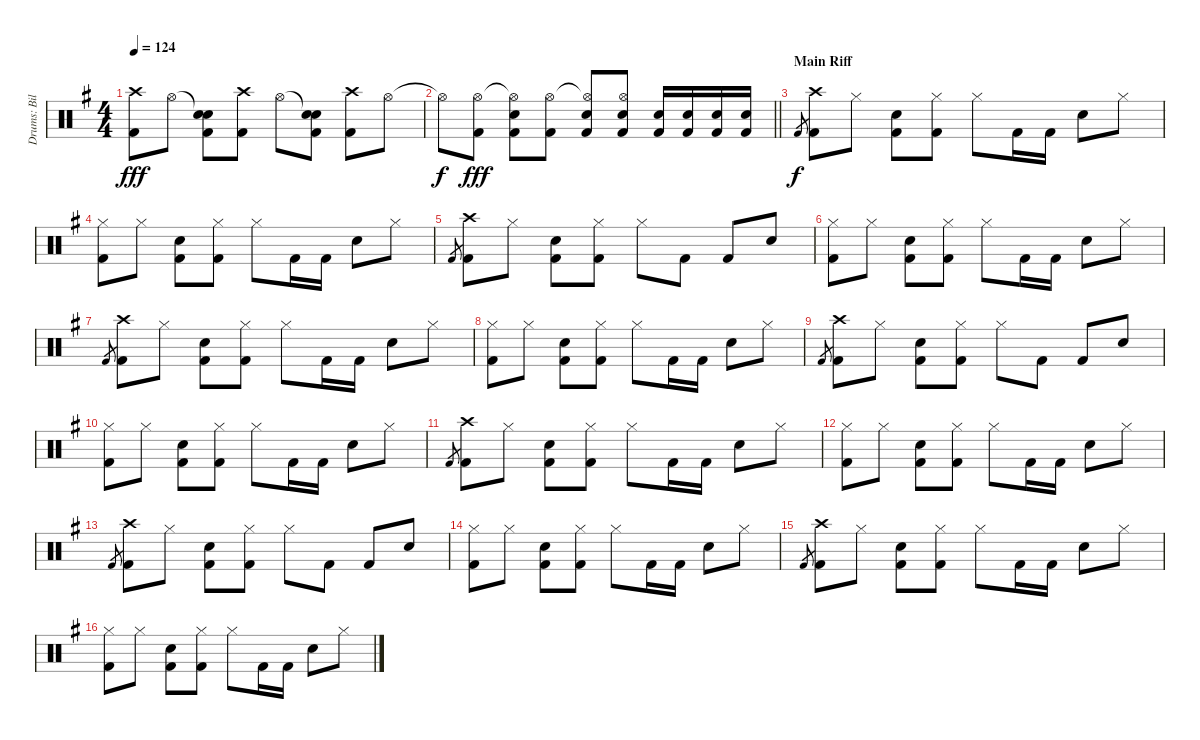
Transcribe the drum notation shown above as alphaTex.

\track ("Drums: Bill" "Drums: Bil") {instrument percussion}
\staff {score}
\articulation defaults
\ts (4 4)
\tempo 124
\clef neutral
\ks g
("Crash high (hit)" "Kick (hit) 2").8{dy fff} "Hi-Hat (open)".8 ("Snare (hit)"{t} "Electric Snare (hit)" "Kick (hit) 2").8 ("Crash high (hit)" "Kick (hit) 2").8 "Hi-Hat (open)".8 ("Snare (hit)"{t} "Electric Snare (hit)" "Kick (hit) 2").8 ("Crash high (hit)" "Kick (hit) 2").8 "Hi-Hat (open)".8 |
\barLineRight lightlight "Hi-Hat (open)"{t}.8{dy f}
("Hi-Hat (open)" "Kick (hit) 2").8{dy fff} ("Hi-Hat (open)"{t} "Electric Snare (hit)" "Kick (hit) 2").8 ("Hi-Hat (open)" "Kick (hit) 2").8 ("Hi-Hat (open)"{t} "Electric Snare (hit)" "Kick (hit) 2").8 ("Hi-Hat (open)" "Electric Snare (hit)" "Kick (hit) 2").8 ("Electric Snare (hit)" "Kick (hit) 2").16 ("Electric Snare (hit)" "Kick (hit) 2").16 ("Electric Snare (hit)" "Kick (hit) 2").16 ("Electric Snare (hit)" "Kick (hit) 2").16 |
\section ("" "Main Riff")
"Kick (hit) 2".8{gr dy f} ("Crash high (hit)" "Kick (hit) 2").8 "Hi-Hat (closed)".8 ("Electric Snare (hit)" "Kick (hit) 2").8 ("Hi-Hat (closed)" "Kick (hit) 2").8 "Hi-Hat (closed)".8 "Kick (hit) 2".16 "Kick (hit) 2".16 "Electric Snare (hit)".8 "Hi-Hat (closed)".8 |
("Hi-Hat (closed)" "Kick (hit) 2").8 "Hi-Hat (closed)".8 ("Electric Snare (hit)" "Kick (hit) 2").8 ("Hi-Hat (closed)" "Kick (hit) 2").8 "Hi-Hat (closed)".8 "Kick (hit) 2".16 "Kick (hit) 2".16 "Electric Snare (hit)".8 "Hi-Hat (closed)".8 |
"Kick (hit) 2".8{gr} ("Crash high (hit)" "Kick (hit) 2").8 "Hi-Hat (closed)".8 ("Electric Snare (hit)" "Kick (hit) 2").8 ("Hi-Hat (closed)" "Kick (hit) 2").8 "Hi-Hat (closed)".8 "Kick (hit) 2".8 "Kick (hit) 2".8 "Electric Snare (hit)".8 |
("Hi-Hat (closed)" "Kick (hit) 2").8 "Hi-Hat (closed)".8 ("Electric Snare (hit)" "Kick (hit) 2").8 ("Hi-Hat (closed)" "Kick (hit) 2").8 "Hi-Hat (closed)".8 "Kick (hit) 2".16 "Kick (hit) 2".16 "Electric Snare (hit)".8 "Hi-Hat (closed)".8 |
"Kick (hit) 2".8{gr} ("Crash high (hit)" "Kick (hit) 2").8 "Hi-Hat (closed)".8 ("Electric Snare (hit)" "Kick (hit) 2").8 ("Hi-Hat (closed)" "Kick (hit) 2").8 "Hi-Hat (closed)".8 "Kick (hit) 2".16 "Kick (hit) 2".16 "Electric Snare (hit)".8 "Hi-Hat (closed)".8 |
("Hi-Hat (closed)" "Kick (hit) 2").8 "Hi-Hat (closed)".8 ("Electric Snare (hit)" "Kick (hit) 2").8 ("Hi-Hat (closed)" "Kick (hit) 2").8 "Hi-Hat (closed)".8 "Kick (hit) 2".16 "Kick (hit) 2".16 "Electric Snare (hit)".8 "Hi-Hat (closed)".8 |
"Kick (hit) 2".8{gr} ("Crash high (hit)" "Kick (hit) 2").8 "Hi-Hat (closed)".8 ("Electric Snare (hit)" "Kick (hit) 2").8 ("Hi-Hat (closed)" "Kick (hit) 2").8 "Hi-Hat (closed)".8 "Kick (hit) 2".8 "Kick (hit) 2".8 "Electric Snare (hit)".8 |
("Hi-Hat (closed)" "Kick (hit) 2").8 "Hi-Hat (closed)".8 ("Electric Snare (hit)" "Kick (hit) 2").8 ("Hi-Hat (closed)" "Kick (hit) 2").8 "Hi-Hat (closed)".8 "Kick (hit) 2".16 "Kick (hit) 2".16 "Electric Snare (hit)".8 "Hi-Hat (closed)".8 |
"Kick (hit) 2".8{gr} ("Crash high (hit)" "Kick (hit) 2").8 "Hi-Hat (closed)".8 ("Electric Snare (hit)" "Kick (hit) 2").8 ("Hi-Hat (closed)" "Kick (hit) 2").8 "Hi-Hat (closed)".8 "Kick (hit) 2".16 "Kick (hit) 2".16 "Electric Snare (hit)".8 "Hi-Hat (closed)".8 |
("Hi-Hat (closed)" "Kick (hit) 2").8 "Hi-Hat (closed)".8 ("Electric Snare (hit)" "Kick (hit) 2").8 ("Hi-Hat (closed)" "Kick (hit) 2").8 "Hi-Hat (closed)".8 "Kick (hit) 2".16 "Kick (hit) 2".16 "Electric Snare (hit)".8 "Hi-Hat (closed)".8 |
"Kick (hit) 2".8{gr} ("Crash high (hit)" "Kick (hit) 2").8 "Hi-Hat (closed)".8 ("Electric Snare (hit)" "Kick (hit) 2").8 ("Hi-Hat (closed)" "Kick (hit) 2").8 "Hi-Hat (closed)".8 "Kick (hit) 2".8 "Kick (hit) 2".8 "Electric Snare (hit)".8 |
("Hi-Hat (closed)" "Kick (hit) 2").8 "Hi-Hat (closed)".8 ("Electric Snare (hit)" "Kick (hit) 2").8 ("Hi-Hat (closed)" "Kick (hit) 2").8 "Hi-Hat (closed)".8 "Kick (hit) 2".16 "Kick (hit) 2".16 "Electric Snare (hit)".8 "Hi-Hat (closed)".8 |
"Kick (hit) 2".8{gr} ("Crash high (hit)" "Kick (hit) 2").8 "Hi-Hat (closed)".8 ("Electric Snare (hit)" "Kick (hit) 2").8 ("Hi-Hat (closed)" "Kick (hit) 2").8 "Hi-Hat (closed)".8 "Kick (hit) 2".16 "Kick (hit) 2".16 "Electric Snare (hit)".8 "Hi-Hat (closed)".8 |
("Hi-Hat (closed)" "Kick (hit) 2").8 "Hi-Hat (closed)".8 ("Electric Snare (hit)" "Kick (hit) 2").8 ("Hi-Hat (closed)" "Kick (hit) 2").8 "Hi-Hat (closed)".8 "Kick (hit) 2".16 "Kick (hit) 2".16 "Electric Snare (hit)".8 "Hi-Hat (closed)".8
